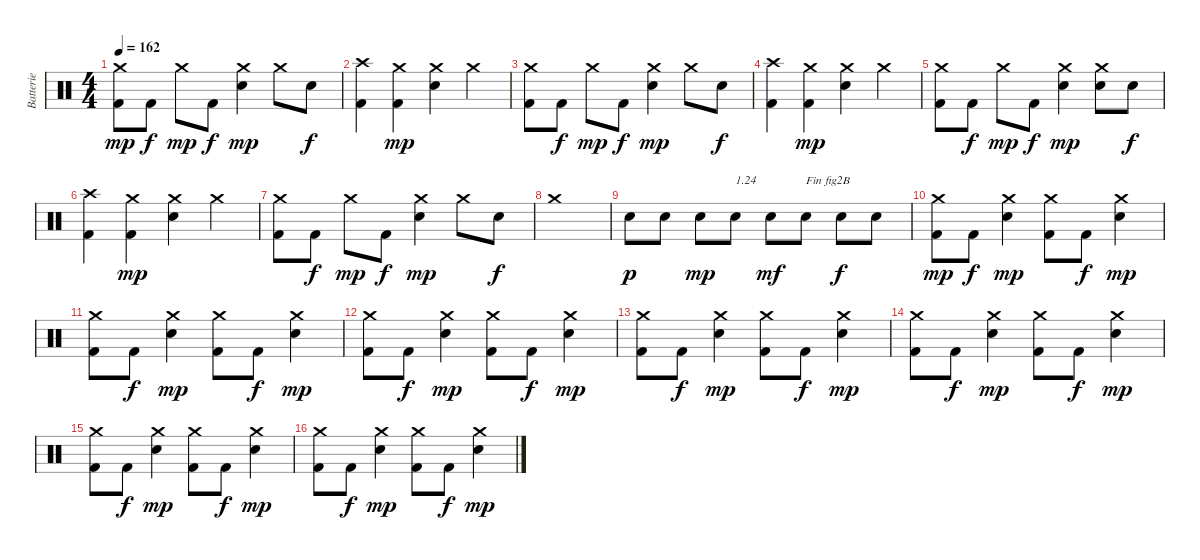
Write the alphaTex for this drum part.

\track ("Batterie" "Batterie") {instrument percussion}
\staff {score}
\articulation defaults
\ts (4 4)
\tempo 162
\clef neutral
\ks c
("Kick (hit) 2" "Crash medium (hit)").8{dy mp} "Kick (hit) 2".8{dy f} "Crash medium (hit)".8{dy mp} "Kick (hit) 2".8{dy f} ("Electric Snare (hit)" "Crash medium (hit)").4{dy mp} "Crash medium (hit)".8 "Electric Snare (hit)".8{dy f} |
("Kick (hit) 2" "Crash high (hit)").4 ("Kick (hit) 2" "Crash medium (hit)").4{dy mp} ("Electric Snare (hit)" "Crash medium (hit)").4 "Crash medium (hit)".4 |
("Kick (hit) 2" "Crash medium (hit)").8 "Kick (hit) 2".8{dy f} "Crash medium (hit)".8{dy mp} "Kick (hit) 2".8{dy f} ("Electric Snare (hit)" "Crash medium (hit)").4{dy mp} "Crash medium (hit)".8 "Electric Snare (hit)".8{dy f} |
("Kick (hit) 2" "Crash high (hit)").4 ("Kick (hit) 2" "Crash medium (hit)").4{dy mp} ("Electric Snare (hit)" "Crash medium (hit)").4 "Crash medium (hit)".4 |
("Kick (hit) 2" "Crash medium (hit)").8 "Kick (hit) 2".8{dy f} "Crash medium (hit)".8{dy mp} "Kick (hit) 2".8{dy f} ("Electric Snare (hit)" "Crash medium (hit)").4{dy mp} ("Electric Snare (hit)" "Crash medium (hit)").8 "Electric Snare (hit)".8{dy f} |
("Kick (hit) 2" "Crash high (hit)").4 ("Kick (hit) 2" "Crash medium (hit)").4{dy mp} ("Electric Snare (hit)" "Crash medium (hit)").4 "Crash medium (hit)".4 |
("Kick (hit) 2" "Crash medium (hit)").8 "Kick (hit) 2".8{dy f} "Crash medium (hit)".8{dy mp} "Kick (hit) 2".8{dy f} ("Electric Snare (hit)" "Crash medium (hit)").4{dy mp} "Crash medium (hit)".8 "Electric Snare (hit)".8{dy f} |
"Crash medium (hit)".1 |
"Electric Snare (hit)".8{dy p} "Electric Snare (hit)".8 "Electric Snare (hit)".8{dy mp} "Electric Snare (hit)".8{txt "1.24"} "Electric Snare (hit)".8{dy mf} "Electric Snare (hit)".8{txt "Fin fig2B"} "Electric Snare (hit)".8{dy f} "Electric Snare (hit)".8 |
("Kick (hit) 2" "Crash medium (hit)").8{dy mp} "Kick (hit) 2".8{dy f} ("Electric Snare (hit)" "Crash medium (hit)").4{dy mp} ("Kick (hit) 2" "Crash medium (hit)").8 "Kick (hit) 2".8{dy f} ("Electric Snare (hit)" "Crash medium (hit)").4{dy mp} |
("Kick (hit) 2" "Crash medium (hit)").8 "Kick (hit) 2".8{dy f} ("Electric Snare (hit)" "Crash medium (hit)").4{dy mp} ("Kick (hit) 2" "Crash medium (hit)").8 "Kick (hit) 2".8{dy f} ("Electric Snare (hit)" "Crash medium (hit)").4{dy mp} |
("Kick (hit) 2" "Crash medium (hit)").8 "Kick (hit) 2".8{dy f} ("Electric Snare (hit)" "Crash medium (hit)").4{dy mp} ("Kick (hit) 2" "Crash medium (hit)").8 "Kick (hit) 2".8{dy f} ("Electric Snare (hit)" "Crash medium (hit)").4{dy mp} |
("Kick (hit) 2" "Crash medium (hit)").8 "Kick (hit) 2".8{dy f} ("Electric Snare (hit)" "Crash medium (hit)").4{dy mp} ("Kick (hit) 2" "Crash medium (hit)").8 "Kick (hit) 2".8{dy f} ("Electric Snare (hit)" "Crash medium (hit)").4{dy mp} |
("Kick (hit) 2" "Crash medium (hit)").8 "Kick (hit) 2".8{dy f} ("Electric Snare (hit)" "Crash medium (hit)").4{dy mp} ("Kick (hit) 2" "Crash medium (hit)").8 "Kick (hit) 2".8{dy f} ("Electric Snare (hit)" "Crash medium (hit)").4{dy mp} |
("Kick (hit) 2" "Crash medium (hit)").8 "Kick (hit) 2".8{dy f} ("Electric Snare (hit)" "Crash medium (hit)").4{dy mp} ("Kick (hit) 2" "Crash medium (hit)").8 "Kick (hit) 2".8{dy f} ("Electric Snare (hit)" "Crash medium (hit)").4{dy mp} |
("Kick (hit) 2" "Crash medium (hit)").8 "Kick (hit) 2".8{dy f} ("Electric Snare (hit)" "Crash medium (hit)").4{dy mp} ("Kick (hit) 2" "Crash medium (hit)").8 "Kick (hit) 2".8{dy f} ("Electric Snare (hit)" "Crash medium (hit)").4{dy mp}
